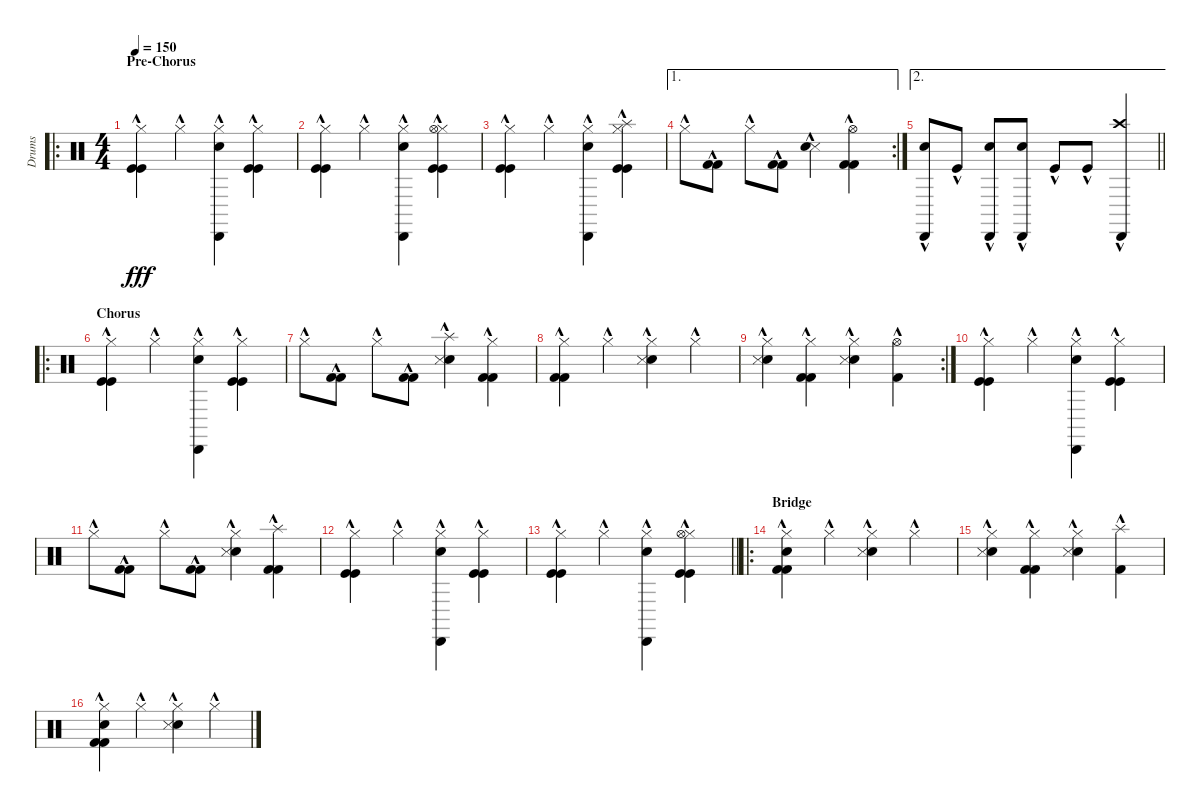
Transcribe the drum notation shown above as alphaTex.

\track ("Drums" "Drums") {instrument percussion}
\staff {score}
\articulation defaults
\ro
\ts (4 4)
\section ("" "Pre-Chorus")
\tempo 150
\clef neutral
\ks c
("Hi-Hat (closed)"{hac} "Kick (hit)"{hac} "Kick (hit)"{hac}).4{dy fff} "Hi-Hat (closed)"{hac}.4 ("Hi-Hat (closed)"{hac} "Cabasa (hit)"{hac} "Electric Snare (hit)"{hac}).4 ("Hi-Hat (closed)"{hac} "Kick (hit)"{hac} "Kick (hit)"{hac}).4 |
("Hi-Hat (closed)"{hac} "Kick (hit)"{hac} "Kick (hit)"{hac}).4 "Hi-Hat (closed)"{hac}.4 ("Hi-Hat (closed)"{hac} "Cabasa (hit)"{hac} "Electric Snare (hit)"{hac}).4 ("Hi-Hat (closed)"{hac} "Kick (hit)"{hac} "Kick (hit)"{hac} "Hi-Hat (open)"{hac}).4 |
("Hi-Hat (closed)"{hac} "Kick (hit)"{hac} "Kick (hit)"{hac}).4 "Hi-Hat (closed)"{hac}.4 ("Hi-Hat (closed)"{hac} "Cabasa (hit)"{hac} "Electric Snare (hit)"{hac}).4 ("Hi-Hat (closed)"{hac} "Kick (hit)"{hac} "Kick (hit)"{hac} "Splash (hit)"{hac}).4 |
\ae 1
\rc 2 "Hi-Hat (closed)"{hac}.8
("Kick (hit) 2"{hac} "Kick (hit) 2"{hac}).8 "Hi-Hat (closed)"{hac}.8 ("Kick (hit) 2"{hac} "Kick (hit) 2"{hac}).8 ("Snare (side stick) 3"{hac} "Electric Snare (hit)"{hac}).4 ("Kick (hit) 2"{hac} "Hi-Hat (open)"{hac} "Kick (hit) 2"{hac}).4 |
\ae 2
\barLineRight lightlight
("Electric Snare (hit)"{hac} "Cabasa (hit)"{hac}).8 "Kick (hit)"{hac}.8 ("Electric Snare (hit)"{hac} "Cabasa (hit)"{hac}).8 ("Electric Snare (hit)"{hac} "Cabasa (hit)"{hac}).8 "Kick (hit)"{hac}.8 "Kick (hit)"{hac}.8 ("Cabasa (hit)"{hac} "Crash high (hit)"{hac}).4 |
\ro
\section ("" "Chorus")
("Hi-Hat (closed)"{hac} "Kick (hit)"{hac} "Kick (hit)"{hac}).4 "Hi-Hat (closed)"{hac}.4 ("Hi-Hat (closed)"{hac} "Cabasa (hit)"{hac} "Electric Snare (hit)"{hac}).4 ("Hi-Hat (closed)"{hac} "Kick (hit)"{hac} "Kick (hit)"{hac}).4 |
"Hi-Hat (closed)"{hac}.8 ("Kick (hit) 2"{hac} "Kick (hit) 2"{hac}).8 "Hi-Hat (closed)"{hac}.8 ("Kick (hit) 2"{hac} "Kick (hit) 2"{hac}).8 ("Splash (hit)"{hac} "Electric Snare (hit)"{hac} "Snare (side stick) 3"{hac}).4 ("Hi-Hat (closed)" "Kick (hit) 2"{hac} "Kick (hit) 2"{hac}).4 |
("Hi-Hat (closed)"{hac} "Kick (hit) 2"{hac} "Kick (hit) 2"{hac}).4 "Hi-Hat (closed)"{hac}.4 ("Hi-Hat (closed)"{hac} "Electric Snare (hit)"{hac} "Snare (side stick) 3"{hac}).4 "Hi-Hat (closed)"{hac}.4 |
\rc 2
("Hi-Hat (closed)"{hac} "Electric Snare (hit)"{hac} "Snare (side stick) 3"{hac}).4 ("Hi-Hat (closed)"{hac} "Kick (hit) 2"{hac} "Kick (hit) 2"{hac}).4 ("Hi-Hat (closed)"{hac} "Electric Snare (hit)"{hac} "Snare (side stick) 3"{hac}).4 ("Hi-Hat (open)"{hac} "Kick (hit) 2"{hac}).4 |
("Hi-Hat (closed)"{hac} "Kick (hit)"{hac} "Kick (hit)"{hac}).4 "Hi-Hat (closed)"{hac}.4 ("Hi-Hat (closed)"{hac} "Cabasa (hit)"{hac} "Electric Snare (hit)"{hac}).4 ("Hi-Hat (closed)"{hac} "Kick (hit)"{hac} "Kick (hit)"{hac}).4 |
"Hi-Hat (closed)"{hac}.8 ("Kick (hit) 2"{hac} "Kick (hit) 2"{hac}).8 "Hi-Hat (closed)"{hac}.8 ("Kick (hit) 2"{hac} "Kick (hit) 2"{hac}).8 ("Hi-Hat (closed)" "Electric Snare (hit)"{hac} "Snare (side stick) 3"{hac}).4 ("Splash (hit)"{hac} "Kick (hit) 2"{hac} "Kick (hit) 2"{hac}).4 |
("Hi-Hat (closed)"{hac} "Kick (hit)"{hac} "Kick (hit)"{hac}).4 "Hi-Hat (closed)"{hac}.4 ("Hi-Hat (closed)"{hac} "Cabasa (hit)"{hac} "Electric Snare (hit)"{hac}).4 ("Hi-Hat (closed)"{hac} "Kick (hit)"{hac} "Kick (hit)"{hac}).4 |
\barLineRight lightlight
("Hi-Hat (closed)"{hac} "Kick (hit)"{hac} "Kick (hit)"{hac}).4 "Hi-Hat (closed)"{hac}.4 ("Hi-Hat (closed)"{hac} "Cabasa (hit)"{hac} "Electric Snare (hit)"{hac}).4 ("Hi-Hat (closed)"{hac} "Kick (hit)"{hac} "Kick (hit)"{hac} "Hi-Hat (open)"{hac}).4 |
\ro
\section ("" "Bridge")
("Hi-Hat (closed)"{hac} "Kick (hit) 2"{hac} "Kick (hit) 2"{hac} "Electric Snare (hit)").4 "Hi-Hat (closed)"{hac}.4 ("Hi-Hat (closed)"{hac} "Electric Snare (hit)"{hac} "Snare (side stick) 3"{hac}).4 "Hi-Hat (closed)"{hac}.4 |
("Hi-Hat (closed)"{hac} "Electric Snare (hit)"{hac} "Snare (side stick) 3"{hac}).4 ("Hi-Hat (closed)"{hac} "Kick (hit) 2"{hac} "Kick (hit) 2"{hac}).4 ("Hi-Hat (closed)"{hac} "Electric Snare (hit)"{hac} "Snare (side stick) 3"{hac}).4 ("Splash (hit)"{hac} "Kick (hit) 2"{hac}).4 |
("Hi-Hat (closed)"{hac} "Kick (hit) 2"{hac} "Kick (hit) 2"{hac} "Electric Snare (hit)").4 "Hi-Hat (closed)"{hac}.4 ("Hi-Hat (closed)"{hac} "Electric Snare (hit)"{hac} "Snare (side stick) 3"{hac}).4 "Hi-Hat (closed)"{hac}.4
